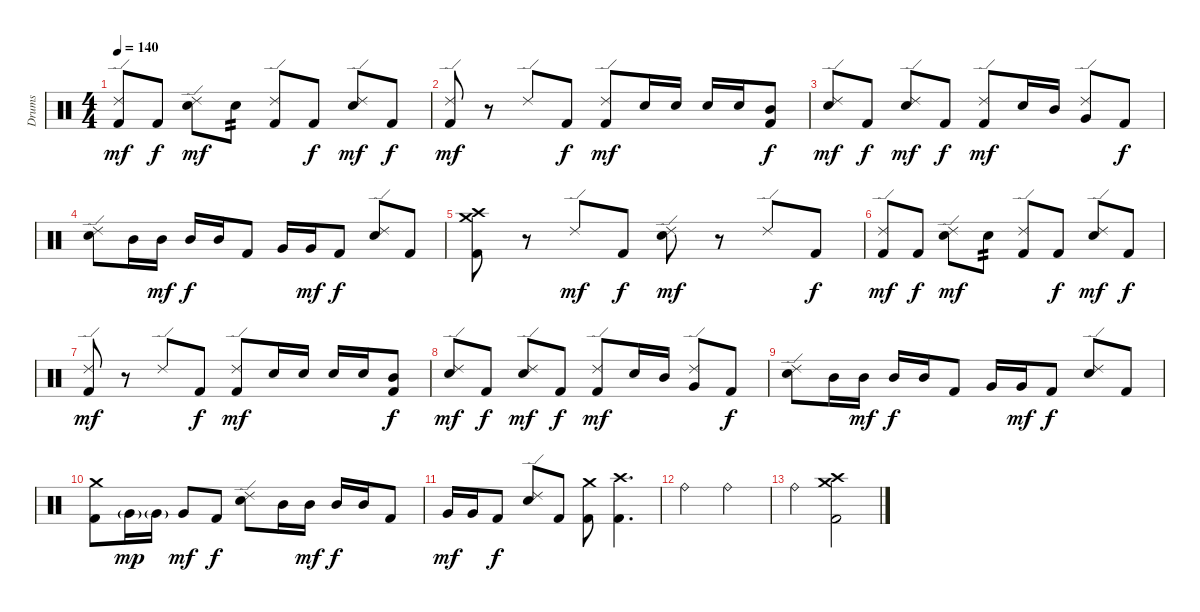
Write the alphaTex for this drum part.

\track ("Drums" "Drums") {instrument percussion}
\staff {score}
\articulation defaults
\ts (4 4)
\tempo 140
\clef neutral
\ks c
("Ride (edge) 2" "Kick (hit) 2").8{dy mf} "Kick (hit) 2".8{dy f} ("Ride (edge) 2" "Snare (hit) 2").8{dy mf} "Snare (hit) 2".8{tp 2} ("Ride (edge) 2" "Kick (hit) 2").8 "Kick (hit) 2".8{dy f} ("Ride (edge) 2" "Snare (hit) 2").8{dy mf} "Kick (hit) 2".8{dy f} |
("Ride (edge) 2" "Kick (hit) 2").8{dy mf} r.8 "Ride (edge) 2".8 "Kick (hit) 2".8{dy f} ("Ride (edge) 2" "Kick (hit) 2").8{dy mf} "Snare (hit) 2".16 "Snare (hit) 2".16 "Snare (hit) 2".16 "Snare (hit) 2".16 ("Mid Tom (hit)" "Kick (hit) 2").8{dy f} |
("Ride (edge) 2" "Snare (hit) 2").8{dy mf} "Kick (hit) 2".8{dy f} ("Ride (edge) 2" "Snare (hit) 2").8{dy mf} "Kick (hit) 2".8{dy f} ("Ride (edge) 2" "Kick (hit) 2").8{dy mf} "Snare (hit) 2".16 "Mid Tom (hit)".16 ("Ride (edge) 2" "Very Low Tom (hit)").8 "Kick (hit) 2".8{dy f} |
("Ride (edge) 2" "Snare (hit) 2").8 "Mid Tom (hit)".16 "Mid Tom (hit)".16{dy mf} "Mid Tom (hit)".16{dy f} "Mid Tom (hit)".16 "Kick (hit) 2".8 "Very Low Tom (hit)".16 "Very Low Tom (hit)".16{dy mf} "Kick (hit) 2".8{dy f} ("Ride (edge) 2" "Snare (hit) 2").8 "Kick (hit) 2".8 |
("Crash medium (hit)" "Crash high (hit)" "Kick (hit) 2").8 r.8 "Ride (edge) 2".8{dy mf} "Kick (hit) 2".8{dy f} ("Ride (edge) 2" "Snare (hit) 2").8{dy mf} r.8 "Ride (edge) 2".8 "Kick (hit) 2".8{dy f} |
("Ride (edge) 2" "Kick (hit) 2").8{dy mf} "Kick (hit) 2".8{dy f} ("Ride (edge) 2" "Snare (hit) 2").8{dy mf} "Snare (hit) 2".8{tp 2} ("Ride (edge) 2" "Kick (hit) 2").8 "Kick (hit) 2".8{dy f} ("Ride (edge) 2" "Snare (hit) 2").8{dy mf} "Kick (hit) 2".8{dy f} |
("Ride (edge) 2" "Kick (hit) 2").8{dy mf} r.8 "Ride (edge) 2".8 "Kick (hit) 2".8{dy f} ("Ride (edge) 2" "Kick (hit) 2").8{dy mf} "Snare (hit) 2".16 "Snare (hit) 2".16 "Snare (hit) 2".16 "Snare (hit) 2".16 ("Mid Tom (hit)" "Kick (hit) 2").8{dy f} |
("Ride (edge) 2" "Snare (hit) 2").8{dy mf} "Kick (hit) 2".8{dy f} ("Ride (edge) 2" "Snare (hit) 2").8{dy mf} "Kick (hit) 2".8{dy f} ("Ride (edge) 2" "Kick (hit) 2").8{dy mf} "Snare (hit) 2".16 "Mid Tom (hit)".16 ("Ride (edge) 2" "Very Low Tom (hit)").8 "Kick (hit) 2".8{dy f} |
("Ride (edge) 2" "Snare (hit) 2").8 "Mid Tom (hit)".16 "Mid Tom (hit)".16{dy mf} "Mid Tom (hit)".16{dy f} "Mid Tom (hit)".16 "Kick (hit) 2".8 "Very Low Tom (hit)".16 "Very Low Tom (hit)".16{dy mf} "Kick (hit) 2".8{dy f} ("Ride (edge) 2" "Snare (hit) 2").8 "Kick (hit) 2".8 |
("Crash medium (hit)" "Kick (hit) 2").8 "Very Low Tom (hit)"{g}.16{dy mp} "Very Low Tom (hit)"{g}.16 "Very Low Tom (hit)".8{dy mf} "Kick (hit) 2".8{dy f} ("Ride (edge) 2" "Snare (hit) 2").8 "Mid Tom (hit)".16 "Mid Tom (hit)".16{dy mf} "Mid Tom (hit)".16{dy f} "Mid Tom (hit)".16 "Kick (hit) 2".8 |
"Very Low Tom (hit)".16{dy mf} "Very Low Tom (hit)".16 "Kick (hit) 2".8{dy f} ("Ride (edge) 2" "Snare (hit) 2").8 "Kick (hit) 2".8 ("Crash medium (hit)" "Kick (hit) 2").8 ("Crash high (hit)" "Kick (hit) 2").4{d} |
"Ride (bell)".2 "Ride (bell)".2 |
"Ride (bell)".2 ("Crash high (hit)" "Crash medium (hit)" "Kick (hit) 2").2
